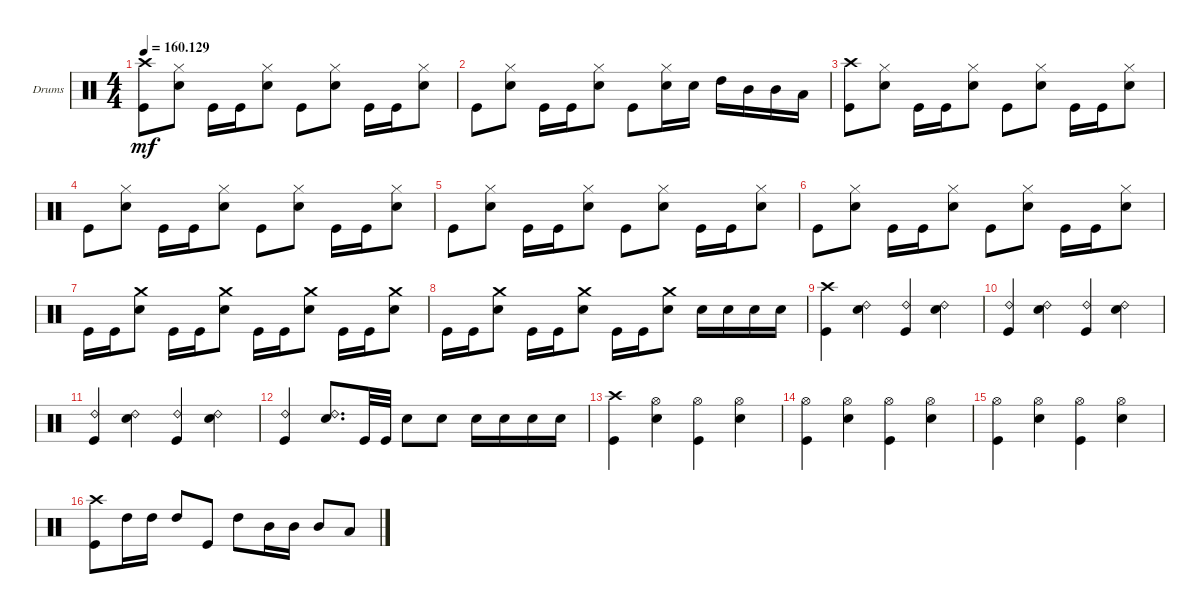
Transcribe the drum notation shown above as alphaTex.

\defaultSystemsLayout 4
\bracketExtendMode groupsimilarinstruments
\firstSystemTrackNameOrientation horizontal
\otherSystemsTrackNameOrientation horizontal
\track ("Drumkit" "Drums") {instrument percussion}
\staff {score}
\articulation defaults
\ts (4 4)
\tempo
160.129
\accidentals auto
\clef neutral
\ottava regular
\simile none
\ks c
("Kick (hit)" "Crash high (hit)").8{dy mf} ("Snare (hit) 2" "Hi-Hat (closed)").8 "Kick (hit)".16 "Kick (hit)".16 ("Snare (hit) 2" "Hi-Hat (closed)").8 "Kick (hit)".8 ("Snare (hit) 2" "Hi-Hat (closed)").8 "Kick (hit)".16 "Kick (hit)".16 ("Snare (hit) 2" "Hi-Hat (closed)").8 |
"Kick (hit)".8 ("Snare (hit) 2" "Hi-Hat (closed)").8 "Kick (hit)".16 "Kick (hit)".16 ("Snare (hit) 2" "Hi-Hat (closed)").8 "Kick (hit)".8 ("Snare (hit) 2" "Hi-Hat (closed)").16 "Snare (hit) 2".16 "High Tom (hit)".16 "Mid Tom (hit)".16 "Mid Tom (hit)".16 "Low Tom (hit)".16 |
("Kick (hit)" "Crash high (hit)").8 ("Snare (hit) 2" "Hi-Hat (closed)").8 "Kick (hit)".16 "Kick (hit)".16 ("Snare (hit) 2" "Hi-Hat (closed)").8 "Kick (hit)".8 ("Snare (hit) 2" "Hi-Hat (closed)").8 "Kick (hit)".16 "Kick (hit)".16 ("Snare (hit) 2" "Hi-Hat (closed)").8 |
"Kick (hit)".8 ("Snare (hit) 2" "Hi-Hat (closed)").8 "Kick (hit)".16 "Kick (hit)".16 ("Snare (hit) 2" "Hi-Hat (closed)").8 "Kick (hit)".8 ("Snare (hit) 2" "Hi-Hat (closed)").8 "Kick (hit)".16 "Kick (hit)".16 ("Snare (hit) 2" "Hi-Hat (closed)").8 |
"Kick (hit)".8 ("Snare (hit) 2" "Hi-Hat (closed)").8 "Kick (hit)".16 "Kick (hit)".16 ("Snare (hit) 2" "Hi-Hat (closed)").8 "Kick (hit)".8 ("Snare (hit) 2" "Hi-Hat (closed)").8 "Kick (hit)".16 "Kick (hit)".16 ("Snare (hit) 2" "Hi-Hat (closed)").8 |
"Kick (hit)".8 ("Snare (hit) 2" "Hi-Hat (closed)").8 "Kick (hit)".16 "Kick (hit)".16 ("Snare (hit) 2" "Hi-Hat (closed)").8 "Kick (hit)".8 ("Snare (hit) 2" "Hi-Hat (closed)").8 "Kick (hit)".16 "Kick (hit)".16 ("Snare (hit) 2" "Hi-Hat (closed)").8 |
"Kick (hit)".16 "Kick (hit)".16 ("Snare (hit) 2" "Crash medium (hit)").8 "Kick (hit)".16 "Kick (hit)".16 ("Snare (hit) 2" "Crash medium (hit)").8 "Kick (hit)".16 "Kick (hit)".16 ("Snare (hit) 2" "Crash medium (hit)").8 "Kick (hit)".16 "Kick (hit)".16 ("Snare (hit) 2" "Crash medium (hit)").8 |
"Kick (hit)".16 "Kick (hit)".16 ("Snare (hit) 2" "Crash medium (hit)").8 "Kick (hit)".16 "Kick (hit)".16 ("Snare (hit) 2" "Crash medium (hit)").8 "Kick (hit)".16 "Kick (hit)".16 ("Snare (hit) 2" "Crash medium (hit)").8 "Snare (hit) 2".16 "Snare (hit) 2".16 "Snare (hit) 2".16 "Snare (hit) 2".16 |
("Kick (hit)" "Crash high (hit)").4 ("Snare (hit) 2" "Ride (bell) 2").4 ("Kick (hit)" "Ride (bell) 2").4 ("Ride (bell) 2" "Snare (hit) 2").4 |
("Kick (hit)" "Ride (bell) 2").4 ("Snare (hit) 2" "Ride (bell) 2").4 ("Kick (hit)" "Ride (bell) 2").4 ("Snare (hit) 2" "Ride (bell) 2").4 |
("Kick (hit)" "Ride (bell) 2").4 ("Snare (hit) 2" "Ride (bell) 2").4 ("Kick (hit)" "Ride (bell) 2").4 ("Snare (hit) 2" "Ride (bell) 2").4 |
("Kick (hit)" "Ride (bell) 2").4 ("Snare (hit) 2" "Ride (bell) 2").8{d} "Kick (hit)".32 "Kick (hit)".32 "Snare (hit) 2".8 "Snare (hit) 2".8 "Snare (hit) 2".16 "Snare (hit) 2".16 "Snare (hit) 2".16 "Snare (hit) 2".16 |
("Kick (hit)" "Crash high (hit)").4 ("Hi-Hat (open)" "Snare (hit) 2").4 ("Hi-Hat (open)" "Kick (hit)").4 ("Hi-Hat (open)" "Snare (hit) 2").4 |
("Hi-Hat (open)" "Kick (hit)").4 ("Hi-Hat (open)" "Snare (hit) 2").4 ("Hi-Hat (open)" "Kick (hit)").4 ("Hi-Hat (open)" "Snare (hit) 2").4 |
("Hi-Hat (open)" "Kick (hit)").4 ("Hi-Hat (open)" "Snare (hit) 2").4 ("Hi-Hat (open)" "Kick (hit)").4 ("Hi-Hat (open)" "Snare (hit) 2").4 |
("Kick (hit)" "Crash high (hit)").8 "High Tom (hit)".16 "High Tom (hit)".16 "High Tom (hit)".8 "Kick (hit)".8 "High Tom (hit)".8 "Mid Tom (hit)".16 "Mid Tom (hit)".16 "Mid Tom (hit)".8 "Low Tom (hit)".8
